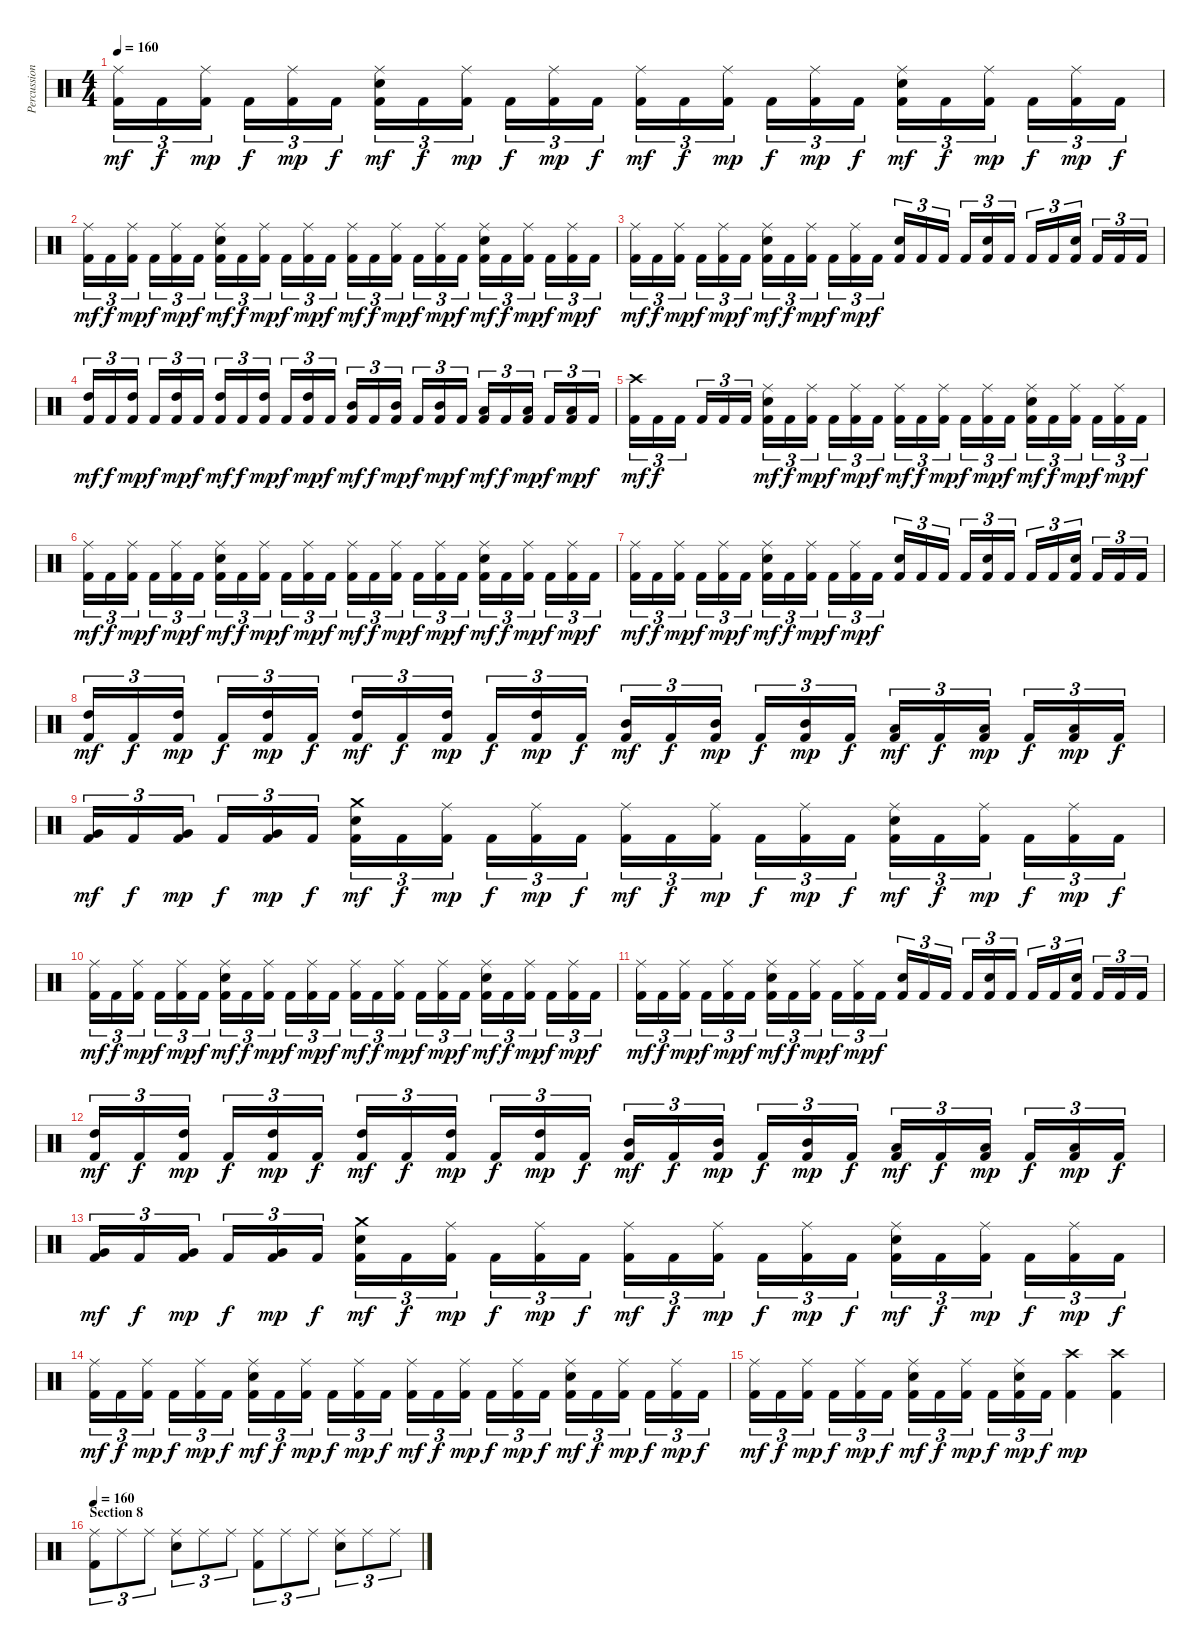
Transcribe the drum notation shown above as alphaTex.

\track ("Percussion" "Percussion") {instrument percussion}
\staff {score}
\articulation defaults
\ts (4 4)
\tempo 160
\clef neutral
\ks c
("Ride (middle)" "Kick (hit) 2").16{tu (3 2) dy mf} "Kick (hit) 2".16{tu (3 2) dy f} ("Ride (middle)" "Kick (hit) 2").16{tu (3 2) dy mp} "Kick (hit) 2".16{tu (3 2) dy f} ("Ride (middle)" "Kick (hit) 2").16{tu (3 2) dy mp} "Kick (hit) 2".16{tu (3 2) dy f} ("Ride (middle)" "Electric Snare (hit)" "Kick (hit) 2").16{tu (3 2) dy mf} "Kick (hit) 2".16{tu (3 2) dy f} ("Ride (middle)" "Kick (hit) 2").16{tu (3 2) dy mp} "Kick (hit) 2".16{tu (3 2) dy f} ("Ride (middle)" "Kick (hit) 2").16{tu (3 2) dy mp} "Kick (hit) 2".16{tu (3 2) dy f} ("Ride (middle)" "Kick (hit) 2").16{tu (3 2) dy mf} "Kick (hit) 2".16{tu (3 2) dy f} ("Ride (middle)" "Kick (hit) 2").16{tu (3 2) dy mp} "Kick (hit) 2".16{tu (3 2) dy f} ("Ride (middle)" "Kick (hit) 2").16{tu (3 2) dy mp} "Kick (hit) 2".16{tu (3 2) dy f} ("Ride (middle)" "Electric Snare (hit)" "Kick (hit) 2").16{tu (3 2) dy mf} "Kick (hit) 2".16{tu (3 2) dy f} ("Ride (middle)" "Kick (hit) 2").16{tu (3 2) dy mp} "Kick (hit) 2".16{tu (3 2) dy f} ("Ride (middle)" "Kick (hit) 2").16{tu (3 2) dy mp} "Kick (hit) 2".16{tu (3 2) dy f} |
("Ride (middle)" "Kick (hit) 2").16{tu (3 2) dy mf} "Kick (hit) 2".16{tu (3 2) dy f} ("Ride (middle)" "Kick (hit) 2").16{tu (3 2) dy mp} "Kick (hit) 2".16{tu (3 2) dy f} ("Ride (middle)" "Kick (hit) 2").16{tu (3 2) dy mp} "Kick (hit) 2".16{tu (3 2) dy f} ("Ride (middle)" "Electric Snare (hit)" "Kick (hit) 2").16{tu (3 2) dy mf} "Kick (hit) 2".16{tu (3 2) dy f} ("Ride (middle)" "Kick (hit) 2").16{tu (3 2) dy mp} "Kick (hit) 2".16{tu (3 2) dy f} ("Ride (middle)" "Kick (hit) 2").16{tu (3 2) dy mp} "Kick (hit) 2".16{tu (3 2) dy f} ("Ride (middle)" "Kick (hit) 2").16{tu (3 2) dy mf} "Kick (hit) 2".16{tu (3 2) dy f} ("Ride (middle)" "Kick (hit) 2").16{tu (3 2) dy mp} "Kick (hit) 2".16{tu (3 2) dy f} ("Ride (middle)" "Kick (hit) 2").16{tu (3 2) dy mp} "Kick (hit) 2".16{tu (3 2) dy f} ("Ride (middle)" "Electric Snare (hit)" "Kick (hit) 2").16{tu (3 2) dy mf} "Kick (hit) 2".16{tu (3 2) dy f} ("Ride (middle)" "Kick (hit) 2").16{tu (3 2) dy mp} "Kick (hit) 2".16{tu (3 2) dy f} ("Ride (middle)" "Kick (hit) 2").16{tu (3 2) dy mp} "Kick (hit) 2".16{tu (3 2) dy f} |
("Ride (middle)" "Kick (hit) 2").16{tu (3 2) dy mf} "Kick (hit) 2".16{tu (3 2) dy f} ("Ride (middle)" "Kick (hit) 2").16{tu (3 2) dy mp} "Kick (hit) 2".16{tu (3 2) dy f} ("Ride (middle)" "Kick (hit) 2").16{tu (3 2) dy mp} "Kick (hit) 2".16{tu (3 2) dy f} ("Ride (middle)" "Electric Snare (hit)" "Kick (hit) 2").16{tu (3 2) dy mf} "Kick (hit) 2".16{tu (3 2) dy f} ("Ride (middle)" "Kick (hit) 2").16{tu (3 2) dy mp} "Kick (hit) 2".16{tu (3 2) dy f} ("Ride (middle)" "Kick (hit) 2").16{tu (3 2) dy mp} "Kick (hit) 2".16{tu (3 2) dy f} ("Electric Snare (hit)" "Kick (hit) 2").16{tu (3 2)} "Kick (hit) 2".16{tu (3 2)} "Kick (hit) 2".16{tu (3 2)} "Kick (hit) 2".16{tu (3 2)} ("Electric Snare (hit)" "Kick (hit) 2").16{tu (3 2)} "Kick (hit) 2".16{tu (3 2)} "Kick (hit) 2".16{tu (3 2)} "Kick (hit) 2".16{tu (3 2)} ("Electric Snare (hit)" "Kick (hit) 2").16{tu (3 2)} "Kick (hit) 2".16{tu (3 2)} "Kick (hit) 2".16{tu (3 2)} "Kick (hit) 2".16{tu (3 2)} |
("High Tom (hit)" "Kick (hit) 2").16{tu (3 2) dy mf} "Kick (hit) 2".16{tu (3 2) dy f} ("High Tom (hit)" "Kick (hit) 2").16{tu (3 2) dy mp} "Kick (hit) 2".16{tu (3 2) dy f} ("High Tom (hit)" "Kick (hit) 2").16{tu (3 2) dy mp} "Kick (hit) 2".16{tu (3 2) dy f} ("High Tom (hit)" "Kick (hit) 2").16{tu (3 2) dy mf} "Kick (hit) 2".16{tu (3 2) dy f} ("High Tom (hit)" "Kick (hit) 2").16{tu (3 2) dy mp} "Kick (hit) 2".16{tu (3 2) dy f} ("High Tom (hit)" "Kick (hit) 2").16{tu (3 2) dy mp} "Kick (hit) 2".16{tu (3 2) dy f} ("Mid Tom (hit)" "Kick (hit) 2").16{tu (3 2) dy mf} "Kick (hit) 2".16{tu (3 2) dy f} ("Mid Tom (hit)" "Kick (hit) 2").16{tu (3 2) dy mp} "Kick (hit) 2".16{tu (3 2) dy f} ("Mid Tom (hit)" "Kick (hit) 2").16{tu (3 2) dy mp} "Kick (hit) 2".16{tu (3 2) dy f} ("Low Tom (hit)" "Kick (hit) 2").16{tu (3 2) dy mf} "Kick (hit) 2".16{tu (3 2) dy f} ("Low Tom (hit)" "Kick (hit) 2").16{tu (3 2) dy mp} "Kick (hit) 2".16{tu (3 2) dy f} ("Low Tom (hit)" "Kick (hit) 2").16{tu (3 2) dy mp} "Kick (hit) 2".16{tu (3 2) dy f} |
("Crash high (hit)" "Kick (hit) 2").16{tu (3 2) dy mf} "Kick (hit) 2".16{tu (3 2) dy f} "Kick (hit) 2".16{tu (3 2)} "Kick (hit) 2".16{tu (3 2)} "Kick (hit) 2".16{tu (3 2)} "Kick (hit) 2".16{tu (3 2)} ("Ride (middle)" "Electric Snare (hit)" "Kick (hit) 2").16{tu (3 2) dy mf} "Kick (hit) 2".16{tu (3 2) dy f} ("Ride (middle)" "Kick (hit) 2").16{tu (3 2) dy mp} "Kick (hit) 2".16{tu (3 2) dy f} ("Ride (middle)" "Kick (hit) 2").16{tu (3 2) dy mp} "Kick (hit) 2".16{tu (3 2) dy f} ("Ride (middle)" "Kick (hit) 2").16{tu (3 2) dy mf} "Kick (hit) 2".16{tu (3 2) dy f} ("Ride (middle)" "Kick (hit) 2").16{tu (3 2) dy mp} "Kick (hit) 2".16{tu (3 2) dy f} ("Ride (middle)" "Kick (hit) 2").16{tu (3 2) dy mp} "Kick (hit) 2".16{tu (3 2) dy f} ("Ride (middle)" "Electric Snare (hit)" "Kick (hit) 2").16{tu (3 2) dy mf} "Kick (hit) 2".16{tu (3 2) dy f} ("Ride (middle)" "Kick (hit) 2").16{tu (3 2) dy mp} "Kick (hit) 2".16{tu (3 2) dy f} ("Ride (middle)" "Kick (hit) 2").16{tu (3 2) dy mp} "Kick (hit) 2".16{tu (3 2) dy f} |
("Ride (middle)" "Kick (hit) 2").16{tu (3 2) dy mf} "Kick (hit) 2".16{tu (3 2) dy f} ("Ride (middle)" "Kick (hit) 2").16{tu (3 2) dy mp} "Kick (hit) 2".16{tu (3 2) dy f} ("Ride (middle)" "Kick (hit) 2").16{tu (3 2) dy mp} "Kick (hit) 2".16{tu (3 2) dy f} ("Ride (middle)" "Electric Snare (hit)" "Kick (hit) 2").16{tu (3 2) dy mf} "Kick (hit) 2".16{tu (3 2) dy f} ("Ride (middle)" "Kick (hit) 2").16{tu (3 2) dy mp} "Kick (hit) 2".16{tu (3 2) dy f} ("Ride (middle)" "Kick (hit) 2").16{tu (3 2) dy mp} "Kick (hit) 2".16{tu (3 2) dy f} ("Ride (middle)" "Kick (hit) 2").16{tu (3 2) dy mf} "Kick (hit) 2".16{tu (3 2) dy f} ("Ride (middle)" "Kick (hit) 2").16{tu (3 2) dy mp} "Kick (hit) 2".16{tu (3 2) dy f} ("Ride (middle)" "Kick (hit) 2").16{tu (3 2) dy mp} "Kick (hit) 2".16{tu (3 2) dy f} ("Ride (middle)" "Electric Snare (hit)" "Kick (hit) 2").16{tu (3 2) dy mf} "Kick (hit) 2".16{tu (3 2) dy f} ("Ride (middle)" "Kick (hit) 2").16{tu (3 2) dy mp} "Kick (hit) 2".16{tu (3 2) dy f} ("Ride (middle)" "Kick (hit) 2").16{tu (3 2) dy mp} "Kick (hit) 2".16{tu (3 2) dy f} |
("Ride (middle)" "Kick (hit) 2").16{tu (3 2) dy mf} "Kick (hit) 2".16{tu (3 2) dy f} ("Ride (middle)" "Kick (hit) 2").16{tu (3 2) dy mp} "Kick (hit) 2".16{tu (3 2) dy f} ("Ride (middle)" "Kick (hit) 2").16{tu (3 2) dy mp} "Kick (hit) 2".16{tu (3 2) dy f} ("Ride (middle)" "Electric Snare (hit)" "Kick (hit) 2").16{tu (3 2) dy mf} "Kick (hit) 2".16{tu (3 2) dy f} ("Ride (middle)" "Kick (hit) 2").16{tu (3 2) dy mp} "Kick (hit) 2".16{tu (3 2) dy f} ("Ride (middle)" "Kick (hit) 2").16{tu (3 2) dy mp} "Kick (hit) 2".16{tu (3 2) dy f} ("Electric Snare (hit)" "Kick (hit) 2").16{tu (3 2)} "Kick (hit) 2".16{tu (3 2)} "Kick (hit) 2".16{tu (3 2)} "Kick (hit) 2".16{tu (3 2)} ("Electric Snare (hit)" "Kick (hit) 2").16{tu (3 2)} "Kick (hit) 2".16{tu (3 2)} "Kick (hit) 2".16{tu (3 2)} "Kick (hit) 2".16{tu (3 2)} ("Electric Snare (hit)" "Kick (hit) 2").16{tu (3 2)} "Kick (hit) 2".16{tu (3 2)} "Kick (hit) 2".16{tu (3 2)} "Kick (hit) 2".16{tu (3 2)} |
("High Tom (hit)" "Kick (hit) 2").16{tu (3 2) dy mf} "Kick (hit) 2".16{tu (3 2) dy f} ("High Tom (hit)" "Kick (hit) 2").16{tu (3 2) dy mp} "Kick (hit) 2".16{tu (3 2) dy f} ("High Tom (hit)" "Kick (hit) 2").16{tu (3 2) dy mp} "Kick (hit) 2".16{tu (3 2) dy f} ("High Tom (hit)" "Kick (hit) 2").16{tu (3 2) dy mf} "Kick (hit) 2".16{tu (3 2) dy f} ("High Tom (hit)" "Kick (hit) 2").16{tu (3 2) dy mp} "Kick (hit) 2".16{tu (3 2) dy f} ("High Tom (hit)" "Kick (hit) 2").16{tu (3 2) dy mp} "Kick (hit) 2".16{tu (3 2) dy f} ("Mid Tom (hit)" "Kick (hit) 2").16{tu (3 2) dy mf} "Kick (hit) 2".16{tu (3 2) dy f} ("Mid Tom (hit)" "Kick (hit) 2").16{tu (3 2) dy mp} "Kick (hit) 2".16{tu (3 2) dy f} ("Mid Tom (hit)" "Kick (hit) 2").16{tu (3 2) dy mp} "Kick (hit) 2".16{tu (3 2) dy f} ("Low Tom (hit)" "Kick (hit) 2").16{tu (3 2) dy mf} "Kick (hit) 2".16{tu (3 2) dy f} ("Low Tom (hit)" "Kick (hit) 2").16{tu (3 2) dy mp} "Kick (hit) 2".16{tu (3 2) dy f} ("Low Tom (hit)" "Kick (hit) 2").16{tu (3 2) dy mp} "Kick (hit) 2".16{tu (3 2) dy f} |
("Very Low Tom (hit)" "Kick (hit) 2").16{tu (3 2) dy mf} "Kick (hit) 2".16{tu (3 2) dy f} ("Very Low Tom (hit)" "Kick (hit) 2").16{tu (3 2) dy mp} "Kick (hit) 2".16{tu (3 2) dy f} ("Very Low Tom (hit)" "Kick (hit) 2").16{tu (3 2) dy mp} "Kick (hit) 2".16{tu (3 2) dy f} ("Crash medium (hit)" "Electric Snare (hit)" "Kick (hit) 2").16{tu (3 2) dy mf} "Kick (hit) 2".16{tu (3 2) dy f} ("Ride (middle)" "Kick (hit) 2").16{tu (3 2) dy mp} "Kick (hit) 2".16{tu (3 2) dy f} ("Ride (middle)" "Kick (hit) 2").16{tu (3 2) dy mp} "Kick (hit) 2".16{tu (3 2) dy f} ("Ride (middle)" "Kick (hit) 2").16{tu (3 2) dy mf} "Kick (hit) 2".16{tu (3 2) dy f} ("Ride (middle)" "Kick (hit) 2").16{tu (3 2) dy mp} "Kick (hit) 2".16{tu (3 2) dy f} ("Ride (middle)" "Kick (hit) 2").16{tu (3 2) dy mp} "Kick (hit) 2".16{tu (3 2) dy f} ("Ride (middle)" "Electric Snare (hit)" "Kick (hit) 2").16{tu (3 2) dy mf} "Kick (hit) 2".16{tu (3 2) dy f} ("Ride (middle)" "Kick (hit) 2").16{tu (3 2) dy mp} "Kick (hit) 2".16{tu (3 2) dy f} ("Ride (middle)" "Kick (hit) 2").16{tu (3 2) dy mp} "Kick (hit) 2".16{tu (3 2) dy f} |
("Ride (middle)" "Kick (hit) 2").16{tu (3 2) dy mf} "Kick (hit) 2".16{tu (3 2) dy f} ("Ride (middle)" "Kick (hit) 2").16{tu (3 2) dy mp} "Kick (hit) 2".16{tu (3 2) dy f} ("Ride (middle)" "Kick (hit) 2").16{tu (3 2) dy mp} "Kick (hit) 2".16{tu (3 2) dy f} ("Ride (middle)" "Electric Snare (hit)" "Kick (hit) 2").16{tu (3 2) dy mf} "Kick (hit) 2".16{tu (3 2) dy f} ("Ride (middle)" "Kick (hit) 2").16{tu (3 2) dy mp} "Kick (hit) 2".16{tu (3 2) dy f} ("Ride (middle)" "Kick (hit) 2").16{tu (3 2) dy mp} "Kick (hit) 2".16{tu (3 2) dy f} ("Ride (middle)" "Kick (hit) 2").16{tu (3 2) dy mf} "Kick (hit) 2".16{tu (3 2) dy f} ("Ride (middle)" "Kick (hit) 2").16{tu (3 2) dy mp} "Kick (hit) 2".16{tu (3 2) dy f} ("Ride (middle)" "Kick (hit) 2").16{tu (3 2) dy mp} "Kick (hit) 2".16{tu (3 2) dy f} ("Ride (middle)" "Electric Snare (hit)" "Kick (hit) 2").16{tu (3 2) dy mf} "Kick (hit) 2".16{tu (3 2) dy f} ("Ride (middle)" "Kick (hit) 2").16{tu (3 2) dy mp} "Kick (hit) 2".16{tu (3 2) dy f} ("Ride (middle)" "Kick (hit) 2").16{tu (3 2) dy mp} "Kick (hit) 2".16{tu (3 2) dy f} |
("Ride (middle)" "Kick (hit) 2").16{tu (3 2) dy mf} "Kick (hit) 2".16{tu (3 2) dy f} ("Ride (middle)" "Kick (hit) 2").16{tu (3 2) dy mp} "Kick (hit) 2".16{tu (3 2) dy f} ("Ride (middle)" "Kick (hit) 2").16{tu (3 2) dy mp} "Kick (hit) 2".16{tu (3 2) dy f} ("Ride (middle)" "Electric Snare (hit)" "Kick (hit) 2").16{tu (3 2) dy mf} "Kick (hit) 2".16{tu (3 2) dy f} ("Ride (middle)" "Kick (hit) 2").16{tu (3 2) dy mp} "Kick (hit) 2".16{tu (3 2) dy f} ("Ride (middle)" "Kick (hit) 2").16{tu (3 2) dy mp} "Kick (hit) 2".16{tu (3 2) dy f} ("Electric Snare (hit)" "Kick (hit) 2").16{tu (3 2)} "Kick (hit) 2".16{tu (3 2)} "Kick (hit) 2".16{tu (3 2)} "Kick (hit) 2".16{tu (3 2)} ("Electric Snare (hit)" "Kick (hit) 2").16{tu (3 2)} "Kick (hit) 2".16{tu (3 2)} "Kick (hit) 2".16{tu (3 2)} "Kick (hit) 2".16{tu (3 2)} ("Electric Snare (hit)" "Kick (hit) 2").16{tu (3 2)} "Kick (hit) 2".16{tu (3 2)} "Kick (hit) 2".16{tu (3 2)} "Kick (hit) 2".16{tu (3 2)} |
("High Tom (hit)" "Kick (hit) 2").16{tu (3 2) dy mf} "Kick (hit) 2".16{tu (3 2) dy f} ("High Tom (hit)" "Kick (hit) 2").16{tu (3 2) dy mp} "Kick (hit) 2".16{tu (3 2) dy f} ("High Tom (hit)" "Kick (hit) 2").16{tu (3 2) dy mp} "Kick (hit) 2".16{tu (3 2) dy f} ("High Tom (hit)" "Kick (hit) 2").16{tu (3 2) dy mf} "Kick (hit) 2".16{tu (3 2) dy f} ("High Tom (hit)" "Kick (hit) 2").16{tu (3 2) dy mp} "Kick (hit) 2".16{tu (3 2) dy f} ("High Tom (hit)" "Kick (hit) 2").16{tu (3 2) dy mp} "Kick (hit) 2".16{tu (3 2) dy f} ("Mid Tom (hit)" "Kick (hit) 2").16{tu (3 2) dy mf} "Kick (hit) 2".16{tu (3 2) dy f} ("Mid Tom (hit)" "Kick (hit) 2").16{tu (3 2) dy mp} "Kick (hit) 2".16{tu (3 2) dy f} ("Mid Tom (hit)" "Kick (hit) 2").16{tu (3 2) dy mp} "Kick (hit) 2".16{tu (3 2) dy f} ("Low Tom (hit)" "Kick (hit) 2").16{tu (3 2) dy mf} "Kick (hit) 2".16{tu (3 2) dy f} ("Low Tom (hit)" "Kick (hit) 2").16{tu (3 2) dy mp} "Kick (hit) 2".16{tu (3 2) dy f} ("Low Tom (hit)" "Kick (hit) 2").16{tu (3 2) dy mp} "Kick (hit) 2".16{tu (3 2) dy f} |
("Very Low Tom (hit)" "Kick (hit) 2").16{tu (3 2) dy mf} "Kick (hit) 2".16{tu (3 2) dy f} ("Very Low Tom (hit)" "Kick (hit) 2").16{tu (3 2) dy mp} "Kick (hit) 2".16{tu (3 2) dy f} ("Very Low Tom (hit)" "Kick (hit) 2").16{tu (3 2) dy mp} "Kick (hit) 2".16{tu (3 2) dy f} ("Crash medium (hit)" "Electric Snare (hit)" "Kick (hit) 2").16{tu (3 2) dy mf} "Kick (hit) 2".16{tu (3 2) dy f} ("Ride (middle)" "Kick (hit) 2").16{tu (3 2) dy mp} "Kick (hit) 2".16{tu (3 2) dy f} ("Ride (middle)" "Kick (hit) 2").16{tu (3 2) dy mp} "Kick (hit) 2".16{tu (3 2) dy f} ("Ride (middle)" "Kick (hit) 2").16{tu (3 2) dy mf} "Kick (hit) 2".16{tu (3 2) dy f} ("Ride (middle)" "Kick (hit) 2").16{tu (3 2) dy mp} "Kick (hit) 2".16{tu (3 2) dy f} ("Ride (middle)" "Kick (hit) 2").16{tu (3 2) dy mp} "Kick (hit) 2".16{tu (3 2) dy f} ("Ride (middle)" "Electric Snare (hit)" "Kick (hit) 2").16{tu (3 2) dy mf} "Kick (hit) 2".16{tu (3 2) dy f} ("Ride (middle)" "Kick (hit) 2").16{tu (3 2) dy mp} "Kick (hit) 2".16{tu (3 2) dy f} ("Ride (middle)" "Kick (hit) 2").16{tu (3 2) dy mp} "Kick (hit) 2".16{tu (3 2) dy f} |
("Ride (middle)" "Kick (hit) 2").16{tu (3 2) dy mf} "Kick (hit) 2".16{tu (3 2) dy f} ("Ride (middle)" "Kick (hit) 2").16{tu (3 2) dy mp} "Kick (hit) 2".16{tu (3 2) dy f} ("Ride (middle)" "Kick (hit) 2").16{tu (3 2) dy mp} "Kick (hit) 2".16{tu (3 2) dy f} ("Ride (middle)" "Electric Snare (hit)" "Kick (hit) 2").16{tu (3 2) dy mf} "Kick (hit) 2".16{tu (3 2) dy f} ("Ride (middle)" "Kick (hit) 2").16{tu (3 2) dy mp} "Kick (hit) 2".16{tu (3 2) dy f} ("Ride (middle)" "Kick (hit) 2").16{tu (3 2) dy mp} "Kick (hit) 2".16{tu (3 2) dy f} ("Ride (middle)" "Kick (hit) 2").16{tu (3 2) dy mf} "Kick (hit) 2".16{tu (3 2) dy f} ("Ride (middle)" "Kick (hit) 2").16{tu (3 2) dy mp} "Kick (hit) 2".16{tu (3 2) dy f} ("Ride (middle)" "Kick (hit) 2").16{tu (3 2) dy mp} "Kick (hit) 2".16{tu (3 2) dy f} ("Ride (middle)" "Electric Snare (hit)" "Kick (hit) 2").16{tu (3 2) dy mf} "Kick (hit) 2".16{tu (3 2) dy f} ("Ride (middle)" "Kick (hit) 2").16{tu (3 2) dy mp} "Kick (hit) 2".16{tu (3 2) dy f} ("Ride (middle)" "Kick (hit) 2").16{tu (3 2) dy mp} "Kick (hit) 2".16{tu (3 2) dy f} |
("Ride (middle)" "Kick (hit) 2").16{tu (3 2) dy mf} "Kick (hit) 2".16{tu (3 2) dy f} ("Ride (middle)" "Kick (hit) 2").16{tu (3 2) dy mp} "Kick (hit) 2".16{tu (3 2) dy f} ("Ride (middle)" "Kick (hit) 2").16{tu (3 2) dy mp} "Kick (hit) 2".16{tu (3 2) dy f} ("Ride (middle)" "Electric Snare (hit)" "Kick (hit) 2").16{tu (3 2) dy mf} "Kick (hit) 2".16{tu (3 2) dy f} ("Ride (middle)" "Kick (hit) 2").16{tu (3 2) dy mp} "Kick (hit) 2".16{tu (3 2) dy f} ("Ride (middle)" "Electric Snare (hit)" "Kick (hit) 2").16{tu (3 2) dy mp} "Kick (hit) 2".16{tu (3 2) dy f} ("Crash high (hit)" "Kick (hit) 2").4{dy mp} ("Crash high (hit)" "Kick (hit) 2").4 |
\section ("" "Section 8")
\tempo 160
("Ride (middle)" "Kick (hit) 2").8{tu (3 2)} "Ride (middle)".8{tu (3 2)} "Ride (middle)".8{tu (3 2)} ("Ride (middle)" "Electric Snare (hit)").8{tu (3 2)} "Ride (middle)".8{tu (3 2)} "Ride (middle)".8{tu (3 2)} ("Ride (middle)" "Kick (hit) 2").8{tu (3 2)} "Ride (middle)".8{tu (3 2)} "Ride (middle)".8{tu (3 2)} ("Ride (middle)" "Electric Snare (hit)").8{tu (3 2)} "Ride (middle)".8{tu (3 2)} "Ride (middle)".8{tu (3 2)}
